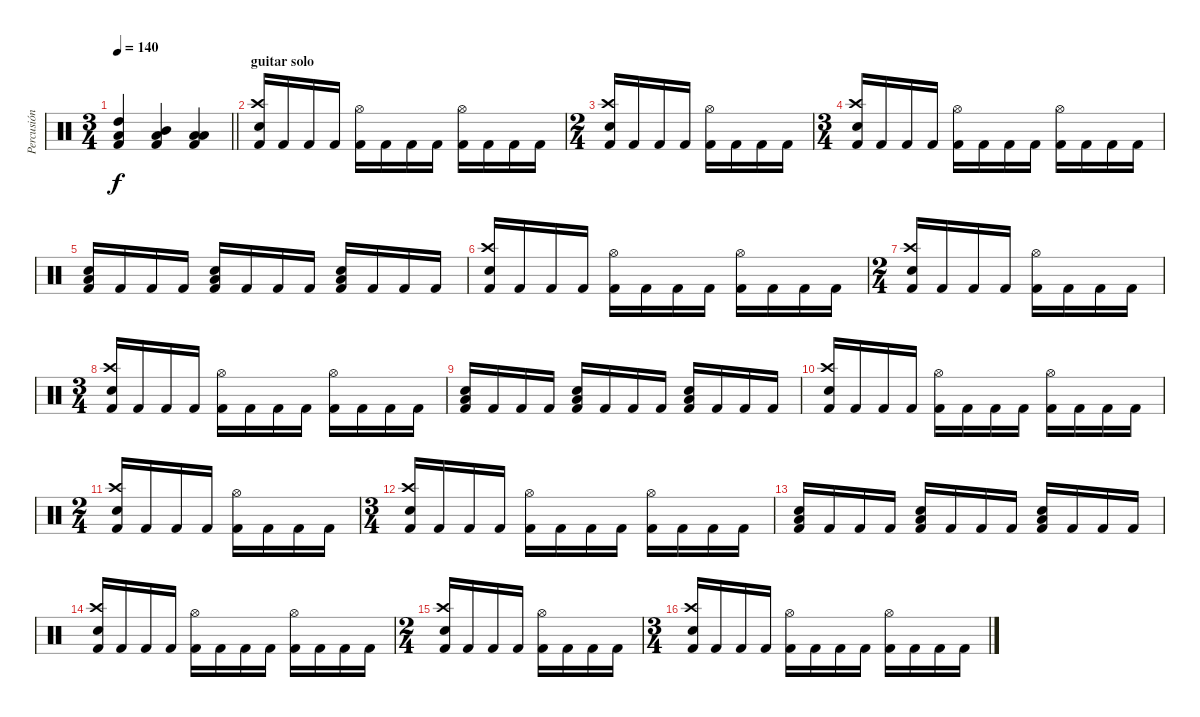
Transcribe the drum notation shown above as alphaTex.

\track ("Percusión" "Percusión") {instrument percussion}
\staff {score}
\articulation defaults
\ts (3 4)
\tempo 140
\clef neutral
\barLineRight lightlight
\ks c
("High Tom (hit)" "Low Floor Tom (hit)" "Kick (hit) 2").4{dy f} ("Mid Tom (hit)" "Low Floor Tom (hit)" "Kick (hit) 2").4 ("Low Tom (hit)" "Low Floor Tom (hit)" "Kick (hit) 2").4 |
\section ("" "guitar solo")
("Crash high (hit)" "Electric Snare (hit)" "Kick (hit) 2").16 "Kick (hit) 2".16 "Kick (hit) 2".16 "Kick (hit) 2".16 ("Hi-Hat (open)" "Kick (hit) 2").16 "Kick (hit) 2".16 "Kick (hit) 2".16 "Kick (hit) 2".16 ("Hi-Hat (open)" "Kick (hit) 2").16 "Kick (hit) 2".16 "Kick (hit) 2".16 "Kick (hit) 2".16 |
\ts (2 4)
("Crash high (hit)" "Electric Snare (hit)" "Kick (hit) 2").16 "Kick (hit) 2".16 "Kick (hit) 2".16 "Kick (hit) 2".16 ("Hi-Hat (open)" "Kick (hit) 2").16 "Kick (hit) 2".16 "Kick (hit) 2".16 "Kick (hit) 2".16 |
\ts (3 4)
("Crash high (hit)" "Electric Snare (hit)" "Kick (hit) 2").16 "Kick (hit) 2".16 "Kick (hit) 2".16 "Kick (hit) 2".16 ("Hi-Hat (open)" "Kick (hit) 2").16 "Kick (hit) 2".16 "Kick (hit) 2".16 "Kick (hit) 2".16 ("Hi-Hat (open)" "Kick (hit) 2").16 "Kick (hit) 2".16 "Kick (hit) 2".16 "Kick (hit) 2".16 |
("Low Tom (hit)" "Electric Snare (hit)" "Kick (hit) 2").16 "Kick (hit) 2".16 "Kick (hit) 2".16 "Kick (hit) 2".16 ("Low Tom (hit)" "Electric Snare (hit)" "Kick (hit) 2").16 "Kick (hit) 2".16 "Kick (hit) 2".16 "Kick (hit) 2".16 ("Low Tom (hit)" "Electric Snare (hit)" "Kick (hit) 2").16 "Kick (hit) 2".16 "Kick (hit) 2".16 "Kick (hit) 2".16 |
("Crash high (hit)" "Electric Snare (hit)" "Kick (hit) 2").16 "Kick (hit) 2".16 "Kick (hit) 2".16 "Kick (hit) 2".16 ("Hi-Hat (open)" "Kick (hit) 2").16 "Kick (hit) 2".16 "Kick (hit) 2".16 "Kick (hit) 2".16 ("Hi-Hat (open)" "Kick (hit) 2").16 "Kick (hit) 2".16 "Kick (hit) 2".16 "Kick (hit) 2".16 |
\ts (2 4)
("Crash high (hit)" "Electric Snare (hit)" "Kick (hit) 2").16 "Kick (hit) 2".16 "Kick (hit) 2".16 "Kick (hit) 2".16 ("Hi-Hat (open)" "Kick (hit) 2").16 "Kick (hit) 2".16 "Kick (hit) 2".16 "Kick (hit) 2".16 |
\ts (3 4)
("Crash high (hit)" "Electric Snare (hit)" "Kick (hit) 2").16 "Kick (hit) 2".16 "Kick (hit) 2".16 "Kick (hit) 2".16 ("Hi-Hat (open)" "Kick (hit) 2").16 "Kick (hit) 2".16 "Kick (hit) 2".16 "Kick (hit) 2".16 ("Hi-Hat (open)" "Kick (hit) 2").16 "Kick (hit) 2".16 "Kick (hit) 2".16 "Kick (hit) 2".16 |
("Low Tom (hit)" "Electric Snare (hit)" "Kick (hit) 2").16 "Kick (hit) 2".16 "Kick (hit) 2".16 "Kick (hit) 2".16 ("Low Tom (hit)" "Electric Snare (hit)" "Kick (hit) 2").16 "Kick (hit) 2".16 "Kick (hit) 2".16 "Kick (hit) 2".16 ("Low Tom (hit)" "Electric Snare (hit)" "Kick (hit) 2").16 "Kick (hit) 2".16 "Kick (hit) 2".16 "Kick (hit) 2".16 |
("Crash high (hit)" "Electric Snare (hit)" "Kick (hit) 2").16 "Kick (hit) 2".16 "Kick (hit) 2".16 "Kick (hit) 2".16 ("Hi-Hat (open)" "Kick (hit) 2").16 "Kick (hit) 2".16 "Kick (hit) 2".16 "Kick (hit) 2".16 ("Hi-Hat (open)" "Kick (hit) 2").16 "Kick (hit) 2".16 "Kick (hit) 2".16 "Kick (hit) 2".16 |
\ts (2 4)
("Crash high (hit)" "Electric Snare (hit)" "Kick (hit) 2").16 "Kick (hit) 2".16 "Kick (hit) 2".16 "Kick (hit) 2".16 ("Hi-Hat (open)" "Kick (hit) 2").16 "Kick (hit) 2".16 "Kick (hit) 2".16 "Kick (hit) 2".16 |
\ts (3 4)
("Crash high (hit)" "Electric Snare (hit)" "Kick (hit) 2").16 "Kick (hit) 2".16 "Kick (hit) 2".16 "Kick (hit) 2".16 ("Hi-Hat (open)" "Kick (hit) 2").16 "Kick (hit) 2".16 "Kick (hit) 2".16 "Kick (hit) 2".16 ("Hi-Hat (open)" "Kick (hit) 2").16 "Kick (hit) 2".16 "Kick (hit) 2".16 "Kick (hit) 2".16 |
("Low Tom (hit)" "Electric Snare (hit)" "Kick (hit) 2").16 "Kick (hit) 2".16 "Kick (hit) 2".16 "Kick (hit) 2".16 ("Low Tom (hit)" "Electric Snare (hit)" "Kick (hit) 2").16 "Kick (hit) 2".16 "Kick (hit) 2".16 "Kick (hit) 2".16 ("Low Tom (hit)" "Electric Snare (hit)" "Kick (hit) 2").16 "Kick (hit) 2".16 "Kick (hit) 2".16 "Kick (hit) 2".16 |
("Crash high (hit)" "Electric Snare (hit)" "Kick (hit) 2").16 "Kick (hit) 2".16 "Kick (hit) 2".16 "Kick (hit) 2".16 ("Hi-Hat (open)" "Kick (hit) 2").16 "Kick (hit) 2".16 "Kick (hit) 2".16 "Kick (hit) 2".16 ("Hi-Hat (open)" "Kick (hit) 2").16 "Kick (hit) 2".16 "Kick (hit) 2".16 "Kick (hit) 2".16 |
\ts (2 4)
("Crash high (hit)" "Electric Snare (hit)" "Kick (hit) 2").16 "Kick (hit) 2".16 "Kick (hit) 2".16 "Kick (hit) 2".16 ("Hi-Hat (open)" "Kick (hit) 2").16 "Kick (hit) 2".16 "Kick (hit) 2".16 "Kick (hit) 2".16 |
\ts (3 4)
("Crash high (hit)" "Electric Snare (hit)" "Kick (hit) 2").16 "Kick (hit) 2".16 "Kick (hit) 2".16 "Kick (hit) 2".16 ("Hi-Hat (open)" "Kick (hit) 2").16 "Kick (hit) 2".16 "Kick (hit) 2".16 "Kick (hit) 2".16 ("Hi-Hat (open)" "Kick (hit) 2").16 "Kick (hit) 2".16 "Kick (hit) 2".16 "Kick (hit) 2".16
